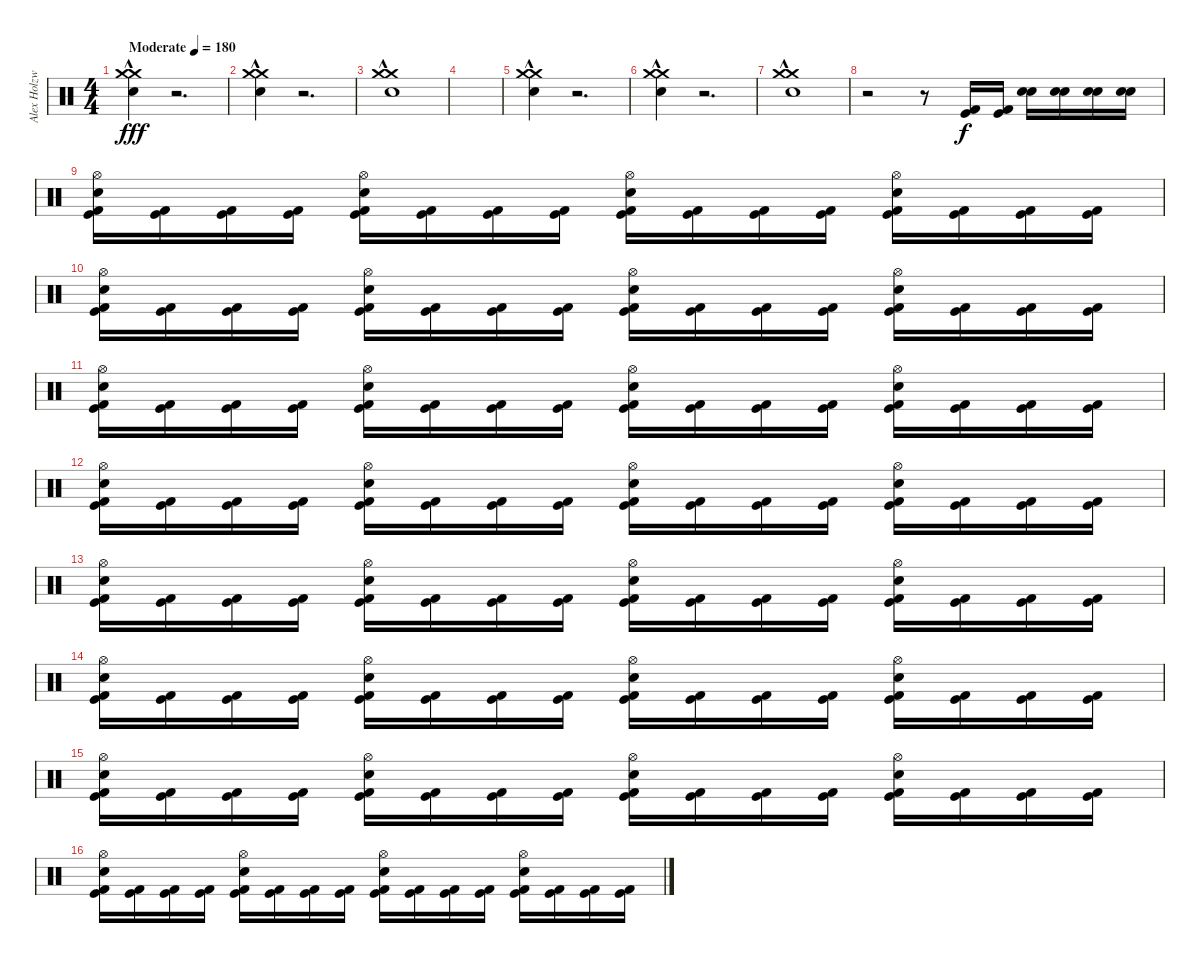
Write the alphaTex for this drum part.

\track ("Alex Holzwarth" "Alex Holzw") {instrument percussion}
\staff {score}
\articulation defaults
\ts (4 4)
\tempo (180 "Moderate")
\clef neutral
\ks c
("Crash medium (hit)"{hac} "Snare (hit) 2" "Crash medium (hit)"{hac}).4{dy fff volume 13} r.2{d volume 0} |
("Crash medium (hit)"{hac} "Snare (hit) 2" "Crash medium (hit)"{hac}).4{volume 13} r.2{d volume 0} |
("Crash medium (hit)"{hac} "Snare (hit) 2" "Crash medium (hit)"{hac}).1{volume 16} |
|
("Crash medium (hit)"{hac} "Snare (hit) 2" "Crash medium (hit)"{hac}).4{volume 13} r.2{d volume 0} |
("Crash medium (hit)"{hac} "Snare (hit) 2" "Crash medium (hit)"{hac}).4{volume 13} r.2{d volume 0} |
("Crash medium (hit)"{hac} "Snare (hit) 2" "Crash medium (hit)"{hac}).1{volume 16} |
r.2 r.8 ("Kick (hit) 2" "Kick (hit)").16{dy f} ("Kick (hit) 2" "Kick (hit)").16 ("Snare (hit) 2" "Electric Snare (hit)").16 ("Snare (hit) 2" "Electric Snare (hit)").16 ("Snare (hit) 2" "Electric Snare (hit)").16 ("Snare (hit) 2" "Electric Snare (hit)").16 |
("Kick (hit) 2" "Kick (hit)" "Snare (hit) 2" "Hi-Hat (open)").16 ("Kick (hit) 2" "Kick (hit)").16 ("Kick (hit) 2" "Kick (hit)").16 ("Kick (hit) 2" "Kick (hit)").16 ("Kick (hit) 2" "Kick (hit)" "Hi-Hat (open)" "Snare (hit) 2").16 ("Kick (hit) 2" "Kick (hit)").16 ("Kick (hit) 2" "Kick (hit)").16 ("Kick (hit) 2" "Kick (hit)").16 ("Kick (hit) 2" "Kick (hit)" "Hi-Hat (open)" "Snare (hit) 2").16 ("Kick (hit) 2" "Kick (hit)").16 ("Kick (hit) 2" "Kick (hit)").16 ("Kick (hit) 2" "Kick (hit)").16 ("Kick (hit) 2" "Kick (hit)" "Hi-Hat (open)" "Snare (hit) 2").16 ("Kick (hit) 2" "Kick (hit)").16 ("Kick (hit) 2" "Kick (hit)").16 ("Kick (hit) 2" "Kick (hit)").16 |
("Kick (hit) 2" "Kick (hit)" "Snare (hit) 2" "Hi-Hat (open)").16 ("Kick (hit) 2" "Kick (hit)").16 ("Kick (hit) 2" "Kick (hit)").16 ("Kick (hit) 2" "Kick (hit)").16 ("Kick (hit) 2" "Kick (hit)" "Hi-Hat (open)" "Snare (hit) 2").16 ("Kick (hit) 2" "Kick (hit)").16 ("Kick (hit) 2" "Kick (hit)").16 ("Kick (hit) 2" "Kick (hit)").16 ("Kick (hit) 2" "Kick (hit)" "Hi-Hat (open)" "Snare (hit) 2").16 ("Kick (hit) 2" "Kick (hit)").16 ("Kick (hit) 2" "Kick (hit)").16 ("Kick (hit) 2" "Kick (hit)").16 ("Kick (hit) 2" "Kick (hit)" "Hi-Hat (open)" "Snare (hit) 2").16 ("Kick (hit) 2" "Kick (hit)").16 ("Kick (hit) 2" "Kick (hit)").16 ("Kick (hit) 2" "Kick (hit)").16 |
("Kick (hit) 2" "Kick (hit)" "Snare (hit) 2" "Hi-Hat (open)").16 ("Kick (hit) 2" "Kick (hit)").16 ("Kick (hit) 2" "Kick (hit)").16 ("Kick (hit) 2" "Kick (hit)").16 ("Kick (hit) 2" "Kick (hit)" "Hi-Hat (open)" "Snare (hit) 2").16 ("Kick (hit) 2" "Kick (hit)").16 ("Kick (hit) 2" "Kick (hit)").16 ("Kick (hit) 2" "Kick (hit)").16 ("Kick (hit) 2" "Kick (hit)" "Hi-Hat (open)" "Snare (hit) 2").16 ("Kick (hit) 2" "Kick (hit)").16 ("Kick (hit) 2" "Kick (hit)").16 ("Kick (hit) 2" "Kick (hit)").16 ("Kick (hit) 2" "Kick (hit)" "Hi-Hat (open)" "Snare (hit) 2").16 ("Kick (hit) 2" "Kick (hit)").16 ("Kick (hit) 2" "Kick (hit)").16 ("Kick (hit) 2" "Kick (hit)").16 |
("Kick (hit) 2" "Kick (hit)" "Snare (hit) 2" "Hi-Hat (open)").16 ("Kick (hit) 2" "Kick (hit)").16 ("Kick (hit) 2" "Kick (hit)").16 ("Kick (hit) 2" "Kick (hit)").16 ("Kick (hit) 2" "Kick (hit)" "Hi-Hat (open)" "Snare (hit) 2").16 ("Kick (hit) 2" "Kick (hit)").16 ("Kick (hit) 2" "Kick (hit)").16 ("Kick (hit) 2" "Kick (hit)").16 ("Kick (hit) 2" "Kick (hit)" "Hi-Hat (open)" "Snare (hit) 2").16 ("Kick (hit) 2" "Kick (hit)").16 ("Kick (hit) 2" "Kick (hit)").16 ("Kick (hit) 2" "Kick (hit)").16 ("Kick (hit) 2" "Kick (hit)" "Hi-Hat (open)" "Snare (hit) 2").16 ("Kick (hit) 2" "Kick (hit)").16 ("Kick (hit) 2" "Kick (hit)").16 ("Kick (hit) 2" "Kick (hit)").16 |
("Kick (hit) 2" "Kick (hit)" "Snare (hit) 2" "Hi-Hat (open)").16 ("Kick (hit) 2" "Kick (hit)").16 ("Kick (hit) 2" "Kick (hit)").16 ("Kick (hit) 2" "Kick (hit)").16 ("Kick (hit) 2" "Kick (hit)" "Hi-Hat (open)" "Snare (hit) 2").16 ("Kick (hit) 2" "Kick (hit)").16 ("Kick (hit) 2" "Kick (hit)").16 ("Kick (hit) 2" "Kick (hit)").16 ("Kick (hit) 2" "Kick (hit)" "Hi-Hat (open)" "Snare (hit) 2").16 ("Kick (hit) 2" "Kick (hit)").16 ("Kick (hit) 2" "Kick (hit)").16 ("Kick (hit) 2" "Kick (hit)").16 ("Kick (hit) 2" "Kick (hit)" "Hi-Hat (open)" "Snare (hit) 2").16 ("Kick (hit) 2" "Kick (hit)").16 ("Kick (hit) 2" "Kick (hit)").16 ("Kick (hit) 2" "Kick (hit)").16 |
("Kick (hit) 2" "Kick (hit)" "Snare (hit) 2" "Hi-Hat (open)").16 ("Kick (hit) 2" "Kick (hit)").16 ("Kick (hit) 2" "Kick (hit)").16 ("Kick (hit) 2" "Kick (hit)").16 ("Kick (hit) 2" "Kick (hit)" "Hi-Hat (open)" "Snare (hit) 2").16 ("Kick (hit) 2" "Kick (hit)").16 ("Kick (hit) 2" "Kick (hit)").16 ("Kick (hit) 2" "Kick (hit)").16 ("Kick (hit) 2" "Kick (hit)" "Hi-Hat (open)" "Snare (hit) 2").16 ("Kick (hit) 2" "Kick (hit)").16 ("Kick (hit) 2" "Kick (hit)").16 ("Kick (hit) 2" "Kick (hit)").16 ("Kick (hit) 2" "Kick (hit)" "Hi-Hat (open)" "Snare (hit) 2").16 ("Kick (hit) 2" "Kick (hit)").16 ("Kick (hit) 2" "Kick (hit)").16 ("Kick (hit) 2" "Kick (hit)").16 |
("Kick (hit) 2" "Kick (hit)" "Snare (hit) 2" "Hi-Hat (open)").16 ("Kick (hit) 2" "Kick (hit)").16 ("Kick (hit) 2" "Kick (hit)").16 ("Kick (hit) 2" "Kick (hit)").16 ("Kick (hit) 2" "Kick (hit)" "Hi-Hat (open)" "Snare (hit) 2").16 ("Kick (hit) 2" "Kick (hit)").16 ("Kick (hit) 2" "Kick (hit)").16 ("Kick (hit) 2" "Kick (hit)").16 ("Kick (hit) 2" "Kick (hit)" "Hi-Hat (open)" "Snare (hit) 2").16 ("Kick (hit) 2" "Kick (hit)").16 ("Kick (hit) 2" "Kick (hit)").16 ("Kick (hit) 2" "Kick (hit)").16 ("Kick (hit) 2" "Kick (hit)" "Hi-Hat (open)" "Snare (hit) 2").16 ("Kick (hit) 2" "Kick (hit)").16 ("Kick (hit) 2" "Kick (hit)").16 ("Kick (hit) 2" "Kick (hit)").16 |
("Kick (hit) 2" "Kick (hit)" "Snare (hit) 2" "Hi-Hat (open)").16 ("Kick (hit) 2" "Kick (hit)").16 ("Kick (hit) 2" "Kick (hit)").16 ("Kick (hit) 2" "Kick (hit)").16 ("Kick (hit) 2" "Kick (hit)" "Hi-Hat (open)" "Snare (hit) 2").16 ("Kick (hit) 2" "Kick (hit)").16 ("Kick (hit) 2" "Kick (hit)").16 ("Kick (hit) 2" "Kick (hit)").16 ("Kick (hit) 2" "Kick (hit)" "Hi-Hat (open)" "Snare (hit) 2").16 ("Kick (hit) 2" "Kick (hit)").16 ("Kick (hit) 2" "Kick (hit)").16 ("Kick (hit) 2" "Kick (hit)").16 ("Kick (hit) 2" "Kick (hit)" "Hi-Hat (open)" "Snare (hit) 2").16 ("Kick (hit) 2" "Kick (hit)").16 ("Kick (hit) 2" "Kick (hit)").16 ("Kick (hit) 2" "Kick (hit)").16
